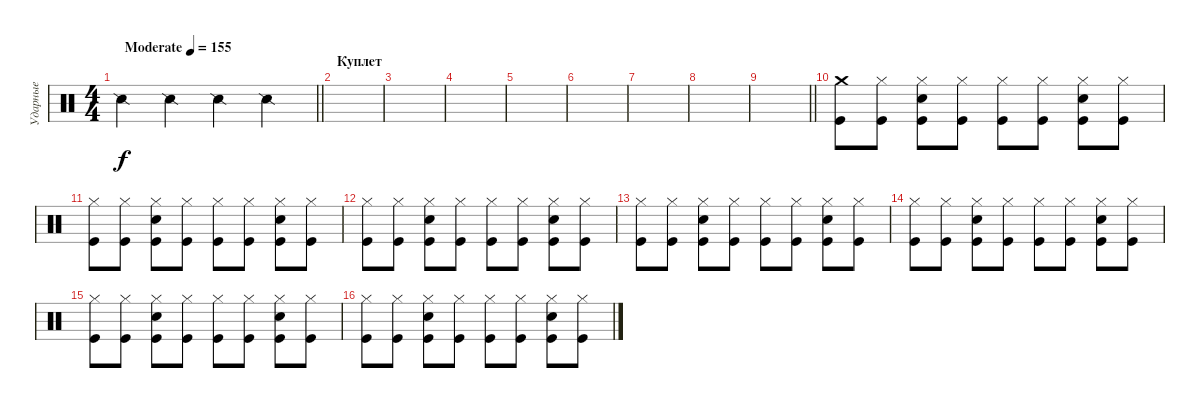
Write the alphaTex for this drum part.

\track ("Ударные" "Ударные") {instrument percussion}
\staff {score}
\articulation defaults
\ts (4 4)
\tempo (155 "Moderate")
\clef neutral
\barLineRight lightlight
\ks c "Snare (side stick) 2".4{dy f} "Snare (side stick) 2".4 "Snare (side stick) 2".4 "Snare (side stick) 2".4
|
\section ("" "Куплет")
|
|
|
|
|
|
|
\barLineRight lightlight
|
\section ("" " ")
("Crash medium (hit)" "Kick (hit)").8 ("Hi-Hat (closed)" "Kick (hit)").8 ("Hi-Hat (closed)" "Electric Snare (hit)" "Kick (hit)").8 ("Hi-Hat (closed)" "Kick (hit)").8 ("Hi-Hat (closed)" "Kick (hit)").8 ("Hi-Hat (closed)" "Kick (hit)").8 ("Hi-Hat (closed)" "Electric Snare (hit)" "Kick (hit)").8 ("Hi-Hat (closed)" "Kick (hit)").8 |
("Hi-Hat (closed)" "Kick (hit)").8 ("Hi-Hat (closed)" "Kick (hit)").8 ("Hi-Hat (closed)" "Electric Snare (hit)" "Kick (hit)").8 ("Hi-Hat (closed)" "Kick (hit)").8 ("Hi-Hat (closed)" "Kick (hit)").8 ("Hi-Hat (closed)" "Kick (hit)").8 ("Hi-Hat (closed)" "Electric Snare (hit)" "Kick (hit)").8 ("Hi-Hat (closed)" "Kick (hit)").8 |
("Hi-Hat (closed)" "Kick (hit)").8 ("Hi-Hat (closed)" "Kick (hit)").8 ("Hi-Hat (closed)" "Electric Snare (hit)" "Kick (hit)").8 ("Hi-Hat (closed)" "Kick (hit)").8 ("Hi-Hat (closed)" "Kick (hit)").8 ("Hi-Hat (closed)" "Kick (hit)").8 ("Hi-Hat (closed)" "Electric Snare (hit)" "Kick (hit)").8 ("Hi-Hat (closed)" "Kick (hit)").8 |
("Hi-Hat (closed)" "Kick (hit)").8 ("Hi-Hat (closed)" "Kick (hit)").8 ("Hi-Hat (closed)" "Electric Snare (hit)" "Kick (hit)").8 ("Hi-Hat (closed)" "Kick (hit)").8 ("Hi-Hat (closed)" "Kick (hit)").8 ("Hi-Hat (closed)" "Kick (hit)").8 ("Hi-Hat (closed)" "Electric Snare (hit)" "Kick (hit)").8 ("Hi-Hat (closed)" "Kick (hit)").8 |
("Hi-Hat (closed)" "Kick (hit)").8 ("Hi-Hat (closed)" "Kick (hit)").8 ("Hi-Hat (closed)" "Electric Snare (hit)" "Kick (hit)").8 ("Hi-Hat (closed)" "Kick (hit)").8 ("Hi-Hat (closed)" "Kick (hit)").8 ("Hi-Hat (closed)" "Kick (hit)").8 ("Hi-Hat (closed)" "Electric Snare (hit)" "Kick (hit)").8 ("Hi-Hat (closed)" "Kick (hit)").8 |
("Hi-Hat (closed)" "Kick (hit)").8 ("Hi-Hat (closed)" "Kick (hit)").8 ("Hi-Hat (closed)" "Electric Snare (hit)" "Kick (hit)").8 ("Hi-Hat (closed)" "Kick (hit)").8 ("Hi-Hat (closed)" "Kick (hit)").8 ("Hi-Hat (closed)" "Kick (hit)").8 ("Hi-Hat (closed)" "Electric Snare (hit)" "Kick (hit)").8 ("Hi-Hat (closed)" "Kick (hit)").8 |
("Hi-Hat (closed)" "Kick (hit)").8 ("Hi-Hat (closed)" "Kick (hit)").8 ("Hi-Hat (closed)" "Electric Snare (hit)" "Kick (hit)").8 ("Hi-Hat (closed)" "Kick (hit)").8 ("Hi-Hat (closed)" "Kick (hit)").8 ("Hi-Hat (closed)" "Kick (hit)").8 ("Hi-Hat (closed)" "Electric Snare (hit)" "Kick (hit)").8 ("Hi-Hat (closed)" "Kick (hit)").8
